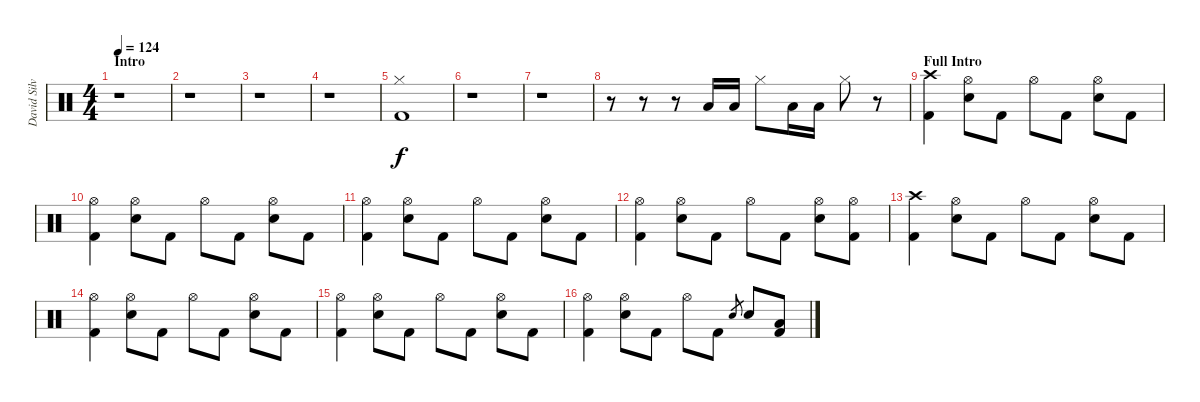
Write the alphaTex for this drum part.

\track ("David Silvera" "David Silv") {instrument percussion}
\staff {score}
\articulation defaults
\ts (4 4)
\section ("" "Intro")
\tempo 124
\clef neutral
\ks c
r.1{dy f} |
r.1 |
r.1 |
r.1 |
("Hi-Hat (closed)" "Kick (hit) 2").1 |
r.1 |
r.1 |
r.8 r.8 r.8 "Low Tom (hit)".16 "Low Tom (hit)".16 "Hi-Hat (closed)".8 "Low Floor Tom (hit)".16 "Low Floor Tom (hit)".16 "Hi-Hat (closed)".8 r.8 |
\section ("" "Full Intro")
("Crash high (hit)" "Kick (hit) 2").4 ("Hi-Hat (open)" "Electric Snare (hit)").8 "Kick (hit) 2".8 "Hi-Hat (open)".8 "Kick (hit) 2".8 ("Hi-Hat (open)" "Electric Snare (hit)").8 "Kick (hit) 2".8 |
("Hi-Hat (open)" "Kick (hit) 2").4 ("Hi-Hat (open)" "Electric Snare (hit)").8 "Kick (hit) 2".8 "Hi-Hat (open)".8 "Kick (hit) 2".8 ("Hi-Hat (open)" "Electric Snare (hit)").8 "Kick (hit) 2".8 |
("Hi-Hat (open)" "Kick (hit) 2").4 ("Hi-Hat (open)" "Electric Snare (hit)").8 "Kick (hit) 2".8 "Hi-Hat (open)".8 "Kick (hit) 2".8 ("Hi-Hat (open)" "Electric Snare (hit)").8 "Kick (hit) 2".8 |
("Hi-Hat (open)" "Kick (hit) 2").4 ("Hi-Hat (open)" "Electric Snare (hit)").8 "Kick (hit) 2".8 "Hi-Hat (open)".8 "Kick (hit) 2".8 ("Hi-Hat (open)" "Electric Snare (hit)").8 ("Hi-Hat (open)" "Kick (hit) 2").8 |
("Crash high (hit)" "Kick (hit) 2").4 ("Hi-Hat (open)" "Electric Snare (hit)").8 "Kick (hit) 2".8 "Hi-Hat (open)".8 "Kick (hit) 2".8 ("Hi-Hat (open)" "Electric Snare (hit)").8 "Kick (hit) 2".8 |
("Hi-Hat (open)" "Kick (hit) 2").4 ("Hi-Hat (open)" "Electric Snare (hit)").8 "Kick (hit) 2".8 "Hi-Hat (open)".8 "Kick (hit) 2".8 ("Hi-Hat (open)" "Electric Snare (hit)").8 "Kick (hit) 2".8 |
("Hi-Hat (open)" "Kick (hit) 2").4 ("Hi-Hat (open)" "Electric Snare (hit)").8 "Kick (hit) 2".8 "Hi-Hat (open)".8 "Kick (hit) 2".8 ("Hi-Hat (open)" "Electric Snare (hit)").8 "Kick (hit) 2".8 |
("Hi-Hat (open)" "Kick (hit) 2").4 ("Hi-Hat (open)" "Electric Snare (hit)").8 "Kick (hit) 2".8 "Hi-Hat (open)".8 "Kick (hit) 2".8 "Electric Snare (hit)".8{gr} "Electric Snare (hit)".8 ("Low Floor Tom (hit)" "Kick (hit) 2").8
